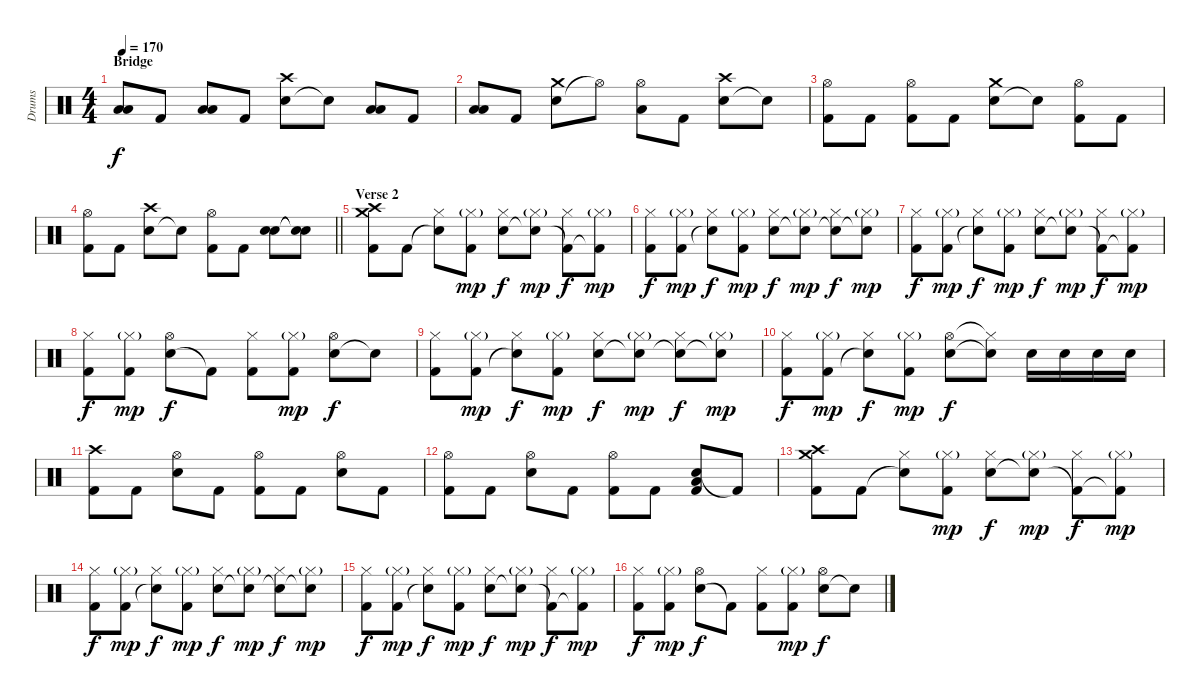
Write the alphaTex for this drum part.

\track ("Drums" "Drums") {instrument percussion}
\staff {score}
\articulation defaults
\ts (4 4)
\section ("" "Bridge")
\tempo 170
\clef neutral
\ks c
("Low Tom (hit)" "Low Floor Tom (hit)").8{dy f} "Kick (hit) 2".8 ("Low Tom (hit)" "Low Floor Tom (hit)").8 "Kick (hit) 2".8 ("Electric Snare (hit)" "Crash high (hit)").8 "Snare (hit)"{t}.8 ("Low Tom (hit)" "Low Floor Tom (hit)").8 "Kick (hit) 2".8 |
("Low Tom (hit)" "Low Floor Tom (hit)").8 "Kick (hit) 2".8 ("Electric Snare (hit)" "Crash medium (hit)").8 "Hi-Hat (open)"{t}.8 ("Hi-Hat (open)" "Low Floor Tom (hit)").8 "Kick (hit) 2".8 ("Electric Snare (hit)" "Crash high (hit)").8 "Snare (hit)"{t}.8 |
("Kick (hit) 2" "Hi-Hat (open)").8 "Kick (hit) 2".8 ("Kick (hit) 2" "Hi-Hat (open)").8 "Kick (hit) 2".8 ("Electric Snare (hit)" "Crash medium (hit)").8 "Snare (hit)"{t}.8 ("Kick (hit) 2" "Hi-Hat (open)").8 "Kick (hit) 2".8 |
\barLineRight lightlight
("Kick (hit) 2" "Hi-Hat (open)").8 "Kick (hit) 2".8 ("Electric Snare (hit)" "Crash high (hit)").8 "Snare (hit)"{t}.8 ("Kick (hit) 2" "Hi-Hat (open)").8 "Kick (hit) 2".8 ("Electric Snare (hit)" "Electric Snare (hit)").8 ("Snare (hit)"{t} "Snare (hit)"{t}).8 |
\section ("" "Verse 2")
("Kick (hit) 2" "Crash medium (hit)" "Crash high (hit)").8 "Kick (hit) 2".8 ("Snare (hit)"{t} "Hi-Hat (closed)").8 ("Kick (hit) 2" "Hi-Hat (closed)"{g}).8{dy mp} ("Electric Snare (hit)" "Hi-Hat (closed)").8{dy f} ("Snare (hit)"{t} "Hi-Hat (closed)"{g}).8{dy mp} ("Kick (hit) 2"{t} "Hi-Hat (closed)").8{dy f} ("Kick (hit) 2"{t} "Hi-Hat (closed)"{g}).8{dy mp} |
("Kick (hit) 2" "Hi-Hat (closed)").8{dy f} ("Kick (hit) 2" "Hi-Hat (closed)"{g}).8{dy mp} ("Electric Snare (hit)"{t} "Hi-Hat (closed)").8{dy f} ("Kick (hit) 2" "Hi-Hat (closed)"{g}).8{dy mp} ("Electric Snare (hit)" "Hi-Hat (closed)").8{dy f} ("Snare (hit)"{t} "Hi-Hat (closed)"{g}).8{dy mp} ("Snare (hit)"{t} "Hi-Hat (closed)").8{dy f} ("Snare (hit)"{t} "Hi-Hat (closed)"{g}).8{dy mp} |
("Kick (hit) 2" "Hi-Hat (closed)").8{dy f} ("Kick (hit) 2" "Hi-Hat (closed)"{g}).8{dy mp} ("Snare (hit)"{t} "Hi-Hat (closed)").8{dy f} ("Kick (hit) 2" "Hi-Hat (closed)"{g}).8{dy mp} ("Electric Snare (hit)" "Hi-Hat (closed)").8{dy f} ("Snare (hit)"{t} "Hi-Hat (closed)"{g}).8{dy mp} ("Kick (hit) 2"{t} "Hi-Hat (closed)").8{dy f} ("Kick (hit) 2"{t} "Hi-Hat (closed)"{g}).8{dy mp} |
("Kick (hit) 2" "Hi-Hat (closed)").8{dy f} ("Kick (hit) 2" "Hi-Hat (closed)"{g}).8{dy mp} ("Electric Snare (hit)" "Hi-Hat (open)").8{dy f} "Kick (hit) 2"{t}.8 ("Kick (hit) 2" "Hi-Hat (closed)").8 ("Kick (hit) 2" "Hi-Hat (closed)"{g}).8{dy mp} ("Electric Snare (hit)" "Hi-Hat (open)").8{dy f} "Snare (hit)"{t}.8 |
("Kick (hit) 2" "Hi-Hat (closed)").8 ("Kick (hit) 2" "Hi-Hat (closed)"{g}).8{dy mp} ("Electric Snare (hit)"{t} "Hi-Hat (closed)").8{dy f} ("Kick (hit) 2" "Hi-Hat (closed)"{g}).8{dy mp} ("Electric Snare (hit)" "Hi-Hat (closed)").8{dy f} ("Snare (hit)"{t} "Hi-Hat (closed)"{g}).8{dy mp} ("Snare (hit)"{t} "Hi-Hat (closed)").8{dy f} ("Snare (hit)"{t} "Hi-Hat (closed)"{g}).8{dy mp} |
("Kick (hit) 2" "Hi-Hat (closed)").8{dy f} ("Kick (hit) 2" "Hi-Hat (closed)"{g}).8{dy mp} ("Snare (hit)"{t} "Hi-Hat (closed)").8{dy f} ("Kick (hit) 2" "Hi-Hat (closed)"{g}).8{dy mp} ("Electric Snare (hit)" "Hi-Hat (open)").8{dy f} ("Snare (hit)"{t} "Hi-Hat (closed)"{t}).8 "Electric Snare (hit)".16 "Electric Snare (hit)".16 "Electric Snare (hit)".16 "Electric Snare (hit)".16 |
("Kick (hit) 2" "Crash high (hit)").8 "Kick (hit) 2".8 ("Electric Snare (hit)" "Hi-Hat (open)").8 "Kick (hit) 2".8 ("Kick (hit) 2" "Hi-Hat (open)").8 "Kick (hit) 2".8 ("Electric Snare (hit)" "Hi-Hat (open)").8 "Kick (hit) 2".8 |
("Kick (hit) 2" "Hi-Hat (open)").8 "Kick (hit) 2".8 ("Electric Snare (hit)" "Hi-Hat (open)").8 "Kick (hit) 2".8 ("Kick (hit) 2" "Hi-Hat (open)").8 "Kick (hit) 2".8 ("Electric Snare (hit)" "Low Floor Tom (hit)" "Kick (hit) 2").8 "Kick (hit) 2"{t}.8 |
("Kick (hit) 2" "Crash medium (hit)" "Crash high (hit)").8 "Kick (hit) 2".8 ("Snare (hit)"{t} "Hi-Hat (closed)").8 ("Kick (hit) 2" "Hi-Hat (closed)"{g}).8{dy mp} ("Electric Snare (hit)" "Hi-Hat (closed)").8{dy f} ("Snare (hit)"{t} "Hi-Hat (closed)"{g}).8{dy mp} ("Kick (hit) 2"{t} "Hi-Hat (closed)").8{dy f} ("Kick (hit) 2"{t} "Hi-Hat (closed)"{g}).8{dy mp} |
("Kick (hit) 2" "Hi-Hat (closed)").8{dy f} ("Kick (hit) 2" "Hi-Hat (closed)"{g}).8{dy mp} ("Electric Snare (hit)"{t} "Hi-Hat (closed)").8{dy f} ("Kick (hit) 2" "Hi-Hat (closed)"{g}).8{dy mp} ("Electric Snare (hit)" "Hi-Hat (closed)").8{dy f} ("Snare (hit)"{t} "Hi-Hat (closed)"{g}).8{dy mp} ("Snare (hit)"{t} "Hi-Hat (closed)").8{dy f} ("Snare (hit)"{t} "Hi-Hat (closed)"{g}).8{dy mp} |
("Kick (hit) 2" "Hi-Hat (closed)").8{dy f} ("Kick (hit) 2" "Hi-Hat (closed)"{g}).8{dy mp} ("Snare (hit)"{t} "Hi-Hat (closed)").8{dy f} ("Kick (hit) 2" "Hi-Hat (closed)"{g}).8{dy mp} ("Electric Snare (hit)" "Hi-Hat (closed)").8{dy f} ("Snare (hit)"{t} "Hi-Hat (closed)"{g}).8{dy mp} ("Kick (hit) 2"{t} "Hi-Hat (closed)").8{dy f} ("Kick (hit) 2"{t} "Hi-Hat (closed)"{g}).8{dy mp} |
("Kick (hit) 2" "Hi-Hat (closed)").8{dy f} ("Kick (hit) 2" "Hi-Hat (closed)"{g}).8{dy mp} ("Electric Snare (hit)" "Hi-Hat (open)").8{dy f} "Kick (hit) 2"{t}.8 ("Kick (hit) 2" "Hi-Hat (closed)").8 ("Kick (hit) 2" "Hi-Hat (closed)"{g}).8{dy mp} ("Electric Snare (hit)" "Hi-Hat (open)").8{dy f} "Snare (hit)"{t}.8
